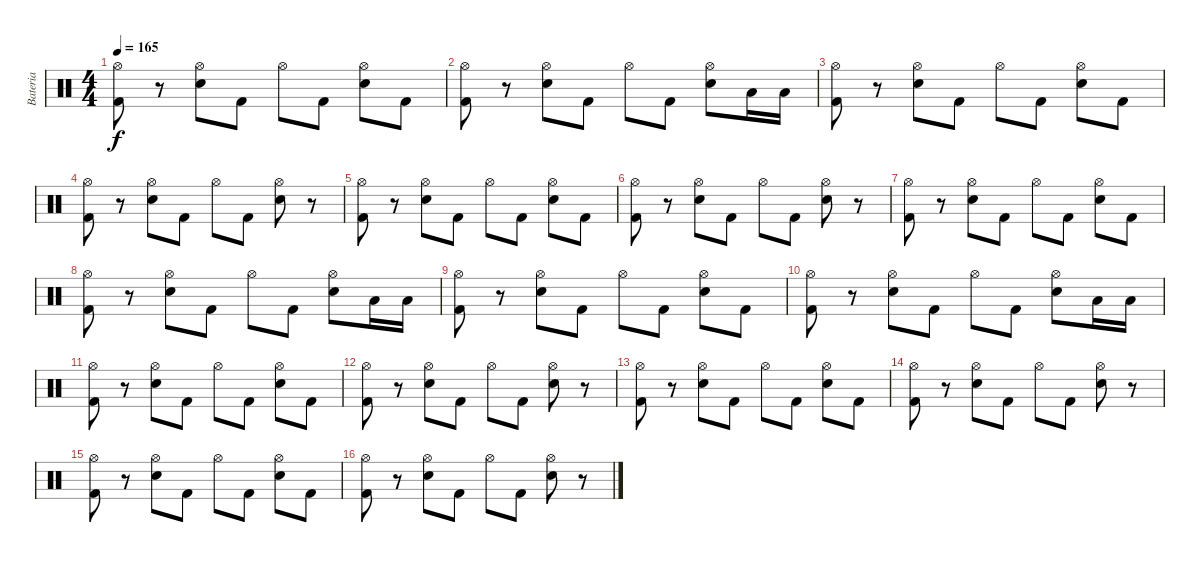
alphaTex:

\track ("Bateria" "Bateria") {instrument percussion}
\staff {score}
\articulation defaults
\ts (4 4)
\tempo 165
\clef neutral
\ks c
("Hi-Hat (open)" "Kick (hit) 2").8{dy f} r.8 ("Hi-Hat (open)" "Snare (hit) 2").8 "Kick (hit) 2".8 "Hi-Hat (open)".8 "Kick (hit) 2".8 ("Hi-Hat (open)" "Snare (hit) 2").8 "Kick (hit) 2".8 |
("Hi-Hat (open)" "Kick (hit) 2").8 r.8 ("Hi-Hat (open)" "Snare (hit) 2").8 "Kick (hit) 2".8 "Hi-Hat (open)".8 "Kick (hit) 2".8 ("Hi-Hat (open)" "Snare (hit) 2").8 "Low Tom (hit)".16 "Low Tom (hit)".16 |
("Hi-Hat (open)" "Kick (hit) 2").8 r.8 ("Hi-Hat (open)" "Snare (hit) 2").8 "Kick (hit) 2".8 "Hi-Hat (open)".8 "Kick (hit) 2".8 ("Hi-Hat (open)" "Snare (hit) 2").8 "Kick (hit) 2".8 |
("Hi-Hat (open)" "Kick (hit) 2").8 r.8 ("Hi-Hat (open)" "Snare (hit) 2").8 "Kick (hit) 2".8 "Hi-Hat (open)".8 "Kick (hit) 2".8 ("Hi-Hat (open)" "Snare (hit) 2").8 r.8 |
("Hi-Hat (open)" "Kick (hit) 2").8 r.8 ("Hi-Hat (open)" "Snare (hit) 2").8 "Kick (hit) 2".8 "Hi-Hat (open)".8 "Kick (hit) 2".8 ("Hi-Hat (open)" "Snare (hit) 2").8 "Kick (hit) 2".8 |
("Hi-Hat (open)" "Kick (hit) 2").8 r.8 ("Hi-Hat (open)" "Snare (hit) 2").8 "Kick (hit) 2".8 "Hi-Hat (open)".8 "Kick (hit) 2".8 ("Hi-Hat (open)" "Snare (hit) 2").8 r.8 |
("Hi-Hat (open)" "Kick (hit) 2").8 r.8 ("Hi-Hat (open)" "Snare (hit) 2").8 "Kick (hit) 2".8 "Hi-Hat (open)".8 "Kick (hit) 2".8 ("Hi-Hat (open)" "Snare (hit) 2").8 "Kick (hit) 2".8 |
("Hi-Hat (open)" "Kick (hit) 2").8 r.8 ("Hi-Hat (open)" "Snare (hit) 2").8 "Kick (hit) 2".8 "Hi-Hat (open)".8 "Kick (hit) 2".8 ("Hi-Hat (open)" "Snare (hit) 2").8 "Low Tom (hit)".16 "Low Tom (hit)".16 |
("Hi-Hat (open)" "Kick (hit) 2").8 r.8 ("Hi-Hat (open)" "Snare (hit) 2").8 "Kick (hit) 2".8 "Hi-Hat (open)".8 "Kick (hit) 2".8 ("Hi-Hat (open)" "Snare (hit) 2").8 "Kick (hit) 2".8 |
("Hi-Hat (open)" "Kick (hit) 2").8 r.8 ("Hi-Hat (open)" "Snare (hit) 2").8 "Kick (hit) 2".8 "Hi-Hat (open)".8 "Kick (hit) 2".8 ("Hi-Hat (open)" "Snare (hit) 2").8 "Low Tom (hit)".16 "Low Tom (hit)".16 |
("Hi-Hat (open)" "Kick (hit) 2").8 r.8 ("Hi-Hat (open)" "Snare (hit) 2").8 "Kick (hit) 2".8 "Hi-Hat (open)".8 "Kick (hit) 2".8 ("Hi-Hat (open)" "Snare (hit) 2").8 "Kick (hit) 2".8 |
("Hi-Hat (open)" "Kick (hit) 2").8 r.8 ("Hi-Hat (open)" "Snare (hit) 2").8 "Kick (hit) 2".8 "Hi-Hat (open)".8 "Kick (hit) 2".8 ("Hi-Hat (open)" "Snare (hit) 2").8 r.8 |
("Hi-Hat (open)" "Kick (hit) 2").8 r.8 ("Hi-Hat (open)" "Snare (hit) 2").8 "Kick (hit) 2".8 "Hi-Hat (open)".8 "Kick (hit) 2".8 ("Hi-Hat (open)" "Snare (hit) 2").8 "Kick (hit) 2".8 |
("Hi-Hat (open)" "Kick (hit) 2").8 r.8 ("Hi-Hat (open)" "Snare (hit) 2").8 "Kick (hit) 2".8 "Hi-Hat (open)".8 "Kick (hit) 2".8 ("Hi-Hat (open)" "Snare (hit) 2").8 r.8 |
("Hi-Hat (open)" "Kick (hit) 2").8 r.8 ("Hi-Hat (open)" "Snare (hit) 2").8 "Kick (hit) 2".8 "Hi-Hat (open)".8 "Kick (hit) 2".8 ("Hi-Hat (open)" "Snare (hit) 2").8 "Kick (hit) 2".8 |
("Hi-Hat (open)" "Kick (hit) 2").8 r.8 ("Hi-Hat (open)" "Snare (hit) 2").8 "Kick (hit) 2".8 "Hi-Hat (open)".8 "Kick (hit) 2".8 ("Hi-Hat (open)" "Snare (hit) 2").8 r.8
